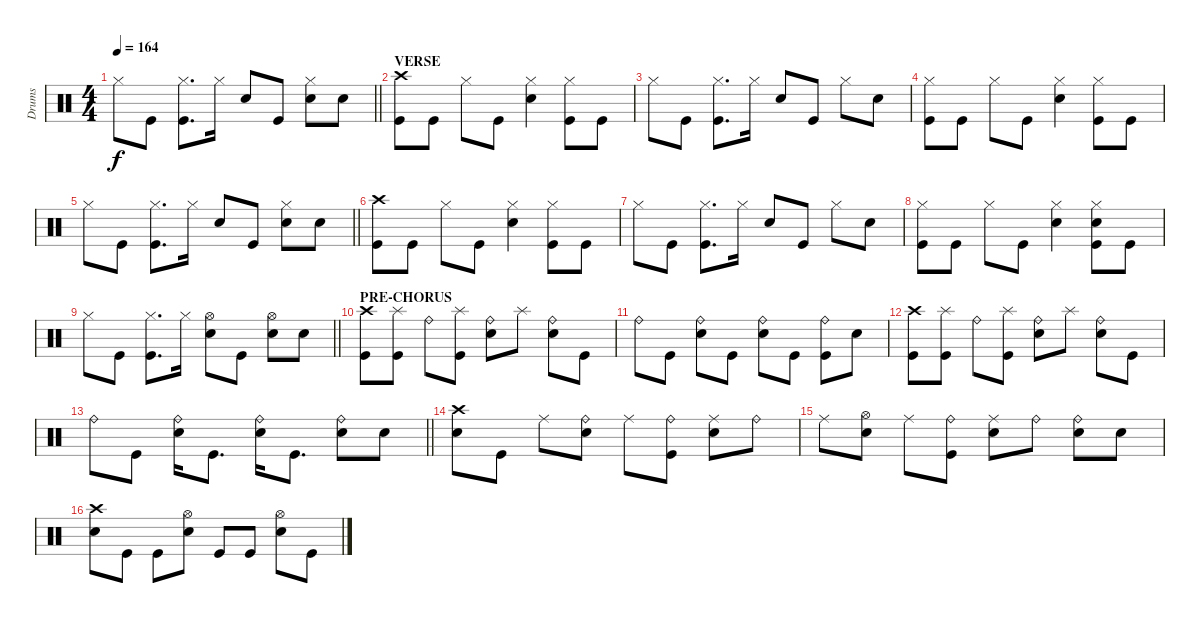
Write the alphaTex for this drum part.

\track ("Drums" "Drums") {instrument percussion}
\staff
\articulation defaults
\ts (4 4)
\tempo 164
\clef neutral
\barLineRight lightlight
\ks c "Hi-Hat (closed)".8{dy f} "Kick (hit)".8
("Hi-Hat (closed)" "Kick (hit)").8{d} "Hi-Hat (closed)".16 "Electric Snare (hit)".8 "Kick (hit)".8 ("Hi-Hat (closed)" "Electric Snare (hit)").8 "Electric Snare (hit)".8 |
\section ("" "VERSE")
("Crash high (hit)" "Kick (hit)").8 "Kick (hit)".8 "Hi-Hat (closed)".8 "Kick (hit)".8 ("Hi-Hat (closed)" "Electric Snare (hit)").4 ("Hi-Hat (closed)" "Kick (hit)").8 "Kick (hit)".8 |
"Hi-Hat (closed)".8 "Kick (hit)".8 ("Hi-Hat (closed)" "Kick (hit)").8{d} "Hi-Hat (closed)".16 "Electric Snare (hit)".8 "Kick (hit)".8 "Hi-Hat (closed)".8 "Electric Snare (hit)".8 |
("Hi-Hat (closed)" "Kick (hit)").8 "Kick (hit)".8 "Hi-Hat (closed)".8 "Kick (hit)".8 ("Hi-Hat (closed)" "Electric Snare (hit)").4 ("Hi-Hat (closed)" "Kick (hit)").8 "Kick (hit)".8 |
\barLineRight lightlight "Hi-Hat (closed)".8 "Kick (hit)".8
("Hi-Hat (closed)" "Kick (hit)").8{d} "Hi-Hat (closed)".16 "Electric Snare (hit)".8 "Kick (hit)".8 ("Hi-Hat (closed)" "Electric Snare (hit)").8 "Electric Snare (hit)".8 |
("Crash high (hit)" "Kick (hit)").8 "Kick (hit)".8 "Hi-Hat (closed)".8 "Kick (hit)".8 ("Hi-Hat (closed)" "Electric Snare (hit)").4 ("Hi-Hat (closed)" "Kick (hit)").8 "Kick (hit)".8 |
"Hi-Hat (closed)".8 "Kick (hit)".8 ("Hi-Hat (closed)" "Kick (hit)").8{d} "Hi-Hat (closed)".16 "Electric Snare (hit)".8 "Kick (hit)".8 "Hi-Hat (closed)".8 "Electric Snare (hit)".8 |
("Hi-Hat (closed)" "Kick (hit)").8 "Kick (hit)".8 "Hi-Hat (closed)".8 "Kick (hit)".8 ("Hi-Hat (closed)" "Electric Snare (hit)").4 ("Hi-Hat (closed)" "Electric Snare (hit)" "Kick (hit)").8 "Kick (hit)".8 |
\barLineRight lightlight "Hi-Hat (closed)".8 "Kick (hit)".8
("Hi-Hat (closed)" "Kick (hit)").8{d} "Hi-Hat (closed)".16 ("Hi-Hat (open)" "Electric Snare (hit)").8 "Kick (hit)".8 ("Hi-Hat (open)" "Electric Snare (hit)").8 "Electric Snare (hit)".8 |
\section ("" "PRE-CHORUS")
("Crash high (hit)" "Kick (hit)").8 ("Splash (hit)" "Kick (hit)").8 "Ride (bell)".8 ("Splash (hit)" "Kick (hit)").8 ("Ride (bell)" "Electric Snare (hit)").8 "Splash (hit)".8 ("Ride (bell)" "Electric Snare (hit)").8 "Kick (hit)".8 |
"Ride (bell)".8 "Kick (hit)".8 ("Ride (bell)" "Electric Snare (hit)").8 "Kick (hit)".8 ("Ride (bell)" "Electric Snare (hit)").8 "Kick (hit)".8 ("Ride (bell)" "Kick (hit)").8 "Electric Snare (hit)".8 |
("Crash high (hit)" "Kick (hit)").8 ("Splash (hit)" "Kick (hit)").8 "Ride (bell)".8 ("Splash (hit)" "Kick (hit)").8 ("Ride (bell)" "Electric Snare (hit)").8 "Splash (hit)".8 ("Ride (bell)" "Electric Snare (hit)").8 "Kick (hit)".8 |
\barLineRight lightlight "Ride (bell)".8 "Kick (hit)".8
("Ride (bell)" "Electric Snare (hit)").16 "Kick (hit)".8{d} ("Ride (bell)" "Electric Snare (hit)").16 "Kick (hit)".8{d} ("Ride (bell)" "Electric Snare (hit)").8 "Electric Snare (hit)".8 |
("Crash high (hit)" "Electric Snare (hit)").8 "Kick (hit)".8 "Ride (middle)".8 ("Ride (bell)" "Electric Snare (hit)").8 "Ride (middle)".8 ("Ride (bell)" "Kick (hit)").8 ("Ride (middle)" "Electric Snare (hit)").8 "Ride (bell)".8 |
"Ride (middle)".8 ("Hi-Hat (open)" "Electric Snare (hit)").8 "Ride (middle)".8 ("Ride (bell)" "Kick (hit)").8 ("Ride (middle)" "Electric Snare (hit)").8 "Ride (bell)".8 ("Ride (bell)" "Electric Snare (hit)").8 "Electric Snare (hit)".8 |
("Crash high (hit)" "Electric Snare (hit)").8 "Kick (hit)".8 "Kick (hit)".8 ("Hi-Hat (open)" "Electric Snare (hit)").8 "Kick (hit)".8 "Kick (hit)".8 ("Hi-Hat (open)" "Electric Snare (hit)").8 "Kick (hit)".8
